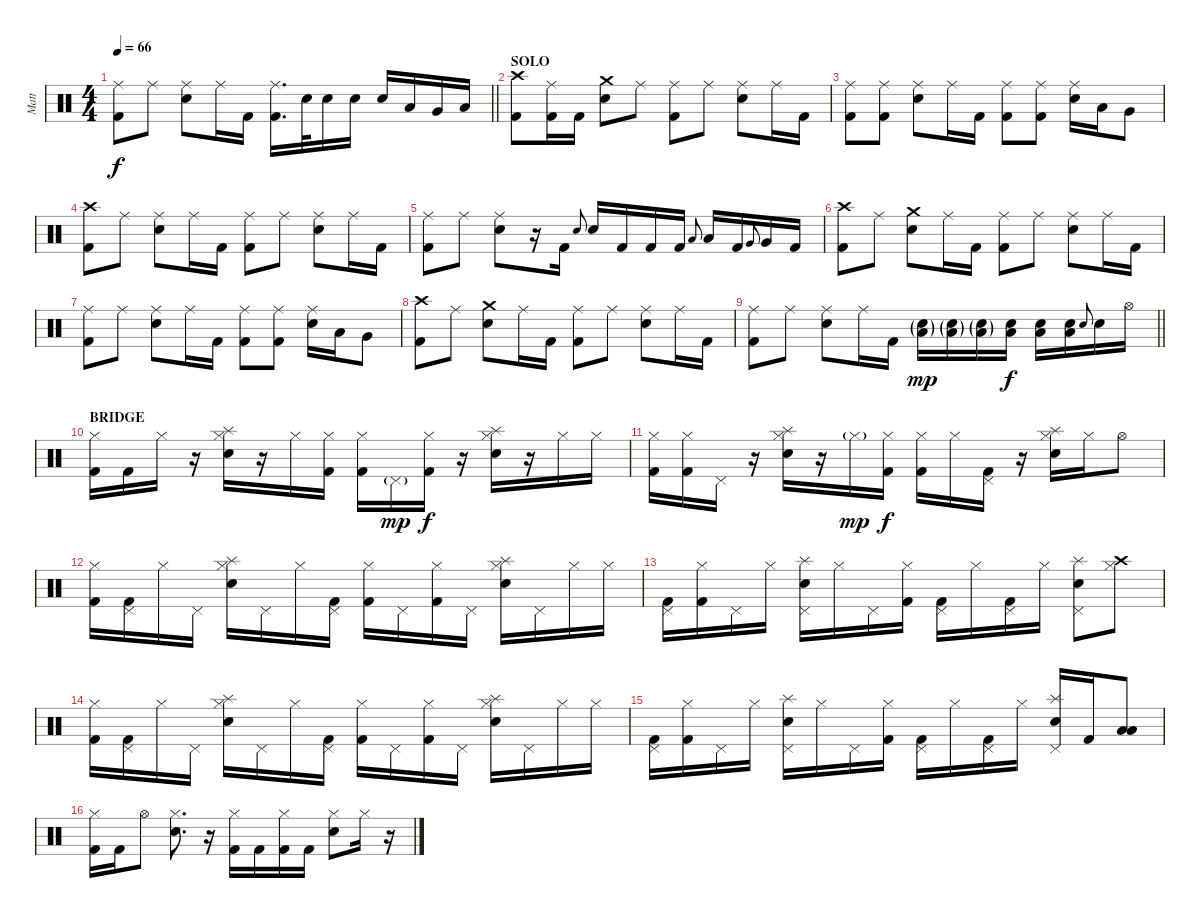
\track ("Matt" "Matt") {instrument percussion}
\staff {score}
\articulation defaults
\ts (4 4)
\tempo 66
\clef neutral
\barLineRight lightlight
\ks c
("Kick (hit) 2" "Ride (middle)").8{dy f} "Ride (middle)".8 ("Electric Snare (hit)" "Ride (middle)").8 "Ride (middle)".16 "Kick (hit) 2".16 ("Kick (hit) 2" "Ride (middle)").16{d} "Electric Snare (hit)".32 "Electric Snare (hit)".16 "Electric Snare (hit)".16 "Electric Snare (hit)".16 "Low Tom (hit)".16 "Very Low Tom (hit)".16 "Low Floor Tom (hit)".16 |
\section ("" "SOLO")
("Crash high (hit)" "Kick (hit) 2").8 ("Kick (hit) 2" "Ride (middle)").16 "Kick (hit) 2".16 ("Crash medium (hit)" "Electric Snare (hit)").8 "Ride (middle)".8 ("Kick (hit) 2" "Ride (middle)").8 "Ride (middle)".8 ("Electric Snare (hit)" "Ride (middle)").8 "Ride (middle)".16 "Kick (hit) 2".16 |
("Kick (hit) 2" "Ride (middle)").8 ("Kick (hit) 2" "Ride (middle)").8 ("Electric Snare (hit)" "Ride (middle)").8 "Ride (middle)".16 "Kick (hit) 2".16 ("Kick (hit) 2" "Ride (middle)").8 ("Kick (hit) 2" "Ride (middle)").8 ("Electric Snare (hit)" "Ride (middle)").16 "Low Tom (hit)".16 "Very Low Tom (hit)".8 |
("Crash high (hit)" "Kick (hit) 2").8 "Ride (middle)".8 ("Electric Snare (hit)" "Ride (middle)").8 "Ride (middle)".16 "Kick (hit) 2".16 ("Kick (hit) 2" "Ride (middle)").8 "Ride (middle)".8 ("Electric Snare (hit)" "Ride (middle)").8 "Ride (middle)".16 "Kick (hit) 2".16 |
("Kick (hit) 2" "Ride (middle)").8 "Ride (middle)".8 ("Electric Snare (hit)" "Ride (middle)").8 r.16 "Kick (hit) 2".16 "Snare (hit) 2".8{gr onbeat} "Electric Snare (hit)".16 "Kick (hit) 2".16 "Kick (hit) 2".16 "Kick (hit) 2".16 "Low Tom (hit)".8{gr onbeat} "Low Tom (hit)".16 "Kick (hit) 2".16 "Very Low Tom (hit)".8{gr onbeat} "Very Low Tom (hit)".16 "Kick (hit) 2".16 |
("Crash high (hit)" "Kick (hit) 2").8 "Ride (middle)".8 ("Crash medium (hit)" "Electric Snare (hit)").8 "Ride (middle)".16 "Kick (hit) 2".16 ("Kick (hit) 2" "Ride (middle)").8 "Ride (middle)".8 ("Electric Snare (hit)" "Ride (middle)").8 "Ride (middle)".16 "Kick (hit) 2".16 |
("Kick (hit) 2" "Ride (middle)").8 "Ride (middle)".8 ("Electric Snare (hit)" "Ride (middle)").8 "Ride (middle)".16 "Kick (hit) 2".16 ("Kick (hit) 2" "Ride (middle)").8 ("Kick (hit) 2" "Ride (middle)").8 ("Electric Snare (hit)" "Ride (middle)").16 "Low Tom (hit)".16 "Very Low Tom (hit)".8 |
("Crash high (hit)" "Kick (hit) 2").8 "Ride (middle)".8 ("Crash medium (hit)" "Electric Snare (hit)").8 "Ride (middle)".16 "Kick (hit) 2".16 ("Kick (hit) 2" "Ride (middle)").8 "Ride (middle)".8 ("Electric Snare (hit)" "Ride (middle)").8 "Ride (middle)".16 "Kick (hit) 2".16 |
\barLineRight lightlight
("Kick (hit) 2" "Ride (middle)").8 "Ride (middle)".8 ("Electric Snare (hit)" "Ride (middle)").8 "Ride (middle)".16 "Kick (hit) 2".16 ("Electric Snare (hit)"{g} "Low Floor Tom (hit)"{g}).16{dy mp} ("Electric Snare (hit)"{g} "Low Floor Tom (hit)"{g}).16 ("Electric Snare (hit)"{g} "Low Floor Tom (hit)"{g}).16 ("Electric Snare (hit)" "Low Floor Tom (hit)").16{dy f} ("Electric Snare (hit)" "Low Floor Tom (hit)").16 ("Electric Snare (hit)" "Low Floor Tom (hit)").16 "Snare (hit) 2".8{gr onbeat} "Electric Snare (hit)".16 "Hi-Hat (open)".16 |
\section ("" "BRIDGE")
("Kick (hit) 2" "Hi-Hat (closed)").16 "Kick (hit) 2".16 "Hi-Hat (closed)".16 r.16 ("Electric Snare (hit)" "Splash (hit)" "Hi-Hat (closed)").16 r.16 "Hi-Hat (closed)".16 ("Kick (hit) 2" "Hi-Hat (closed)").16 ("Kick (hit) 2" "Hi-Hat (closed)").16 "Pedal Hi-Hat (hit)"{g}.16{dy mp} ("Kick (hit) 2" "Hi-Hat (closed)").16{dy f} r.16 ("Electric Snare (hit)" "Splash (hit)" "Hi-Hat (closed)").16 r.16 "Hi-Hat (closed)".16 "Hi-Hat (closed)".16 |
("Kick (hit) 2" "Hi-Hat (closed)").16 ("Kick (hit) 2" "Hi-Hat (closed)").16 "Pedal Hi-Hat (hit)".16 r.16 ("Electric Snare (hit)" "Splash (hit)" "Hi-Hat (closed)").16 r.16 "Hi-Hat (closed)"{g}.16{dy mp} ("Kick (hit) 2" "Hi-Hat (closed)").16{dy f} ("Kick (hit) 2" "Hi-Hat (closed)").16 "Hi-Hat (closed)".16 ("Kick (hit) 2" "Pedal Hi-Hat (hit)").16 r.16 ("Electric Snare (hit)" "Splash (hit)" "Hi-Hat (closed)").16 "Hi-Hat (closed)".16 "Hi-Hat (open)".8 |
("Kick (hit) 2" "Hi-Hat (closed)").16 ("Kick (hit) 2" "Pedal Hi-Hat (hit)").16 "Hi-Hat (closed)".16 "Pedal Hi-Hat (hit)".16 ("Electric Snare (hit)" "Splash (hit)" "Hi-Hat (closed)").16 "Pedal Hi-Hat (hit)".16 "Hi-Hat (closed)".16 ("Kick (hit) 2" "Pedal Hi-Hat (hit)").16 ("Kick (hit) 2" "Hi-Hat (closed)").16 "Pedal Hi-Hat (hit)".16 ("Kick (hit) 2" "Hi-Hat (closed)").16 "Pedal Hi-Hat (hit)".16 ("Electric Snare (hit)" "Splash (hit)" "Hi-Hat (closed)").16 "Pedal Hi-Hat (hit)".16 "Hi-Hat (closed)".16 "Hi-Hat (closed)".16 |
("Kick (hit) 2" "Pedal Hi-Hat (hit)").16 ("Kick (hit) 2" "Hi-Hat (closed)").16 "Pedal Hi-Hat (hit)".16 "Hi-Hat (closed)".16 ("Electric Snare (hit)" "Splash (hit)" "Pedal Hi-Hat (hit)").16 "Hi-Hat (closed)".16 "Pedal Hi-Hat (hit)".16 ("Kick (hit) 2" "Hi-Hat (closed)").16 ("Kick (hit) 2" "Pedal Hi-Hat (hit)").16 "Hi-Hat (closed)".16 ("Kick (hit) 2" "Pedal Hi-Hat (hit)").16 "Hi-Hat (closed)".16 ("Electric Snare (hit)" "Splash (hit)" "Pedal Hi-Hat (hit)").8 ("Crash high (hit)" "Hi-Hat (closed)").8 |
("Kick (hit) 2" "Hi-Hat (closed)").16 ("Kick (hit) 2" "Pedal Hi-Hat (hit)").16 "Hi-Hat (closed)".16 "Pedal Hi-Hat (hit)".16 ("Electric Snare (hit)" "Splash (hit)" "Hi-Hat (closed)").16 "Pedal Hi-Hat (hit)".16 "Hi-Hat (closed)".16 ("Kick (hit) 2" "Pedal Hi-Hat (hit)").16 ("Kick (hit) 2" "Hi-Hat (closed)").16 "Pedal Hi-Hat (hit)".16 ("Kick (hit) 2" "Hi-Hat (closed)").16 "Pedal Hi-Hat (hit)".16 ("Electric Snare (hit)" "Splash (hit)" "Hi-Hat (closed)").16 "Pedal Hi-Hat (hit)".16 "Hi-Hat (closed)".16 "Hi-Hat (closed)".16 |
("Kick (hit) 2" "Pedal Hi-Hat (hit)").16 ("Kick (hit) 2" "Hi-Hat (closed)").16 "Pedal Hi-Hat (hit)".16 "Hi-Hat (closed)".16 ("Electric Snare (hit)" "Splash (hit)" "Pedal Hi-Hat (hit)").16 "Hi-Hat (closed)".16 "Pedal Hi-Hat (hit)".16 ("Kick (hit) 2" "Hi-Hat (closed)").16 ("Kick (hit) 2" "Pedal Hi-Hat (hit)").16 "Hi-Hat (closed)".16 ("Kick (hit) 2" "Pedal Hi-Hat (hit)").16 "Hi-Hat (closed)".16 ("Electric Snare (hit)" "Splash (hit)" "Pedal Hi-Hat (hit)").16 "Kick (hit) 2".16 ("Low Tom (hit)" "Low Floor Tom (hit)").8 |
("Kick (hit) 2" "Hi-Hat (closed)").16 "Kick (hit) 2".16 "Hi-Hat (open)".8 ("Electric Snare (hit)" "Hi-Hat (closed)").8{d} r.16 ("Kick (hit) 2" "Hi-Hat (closed)").16 "Kick (hit) 2".16 ("Kick (hit) 2" "Hi-Hat (closed)").16 "Kick (hit) 2".16 ("Electric Snare (hit)" "Hi-Hat (closed)").8 "Hi-Hat (closed)".16 r.16
